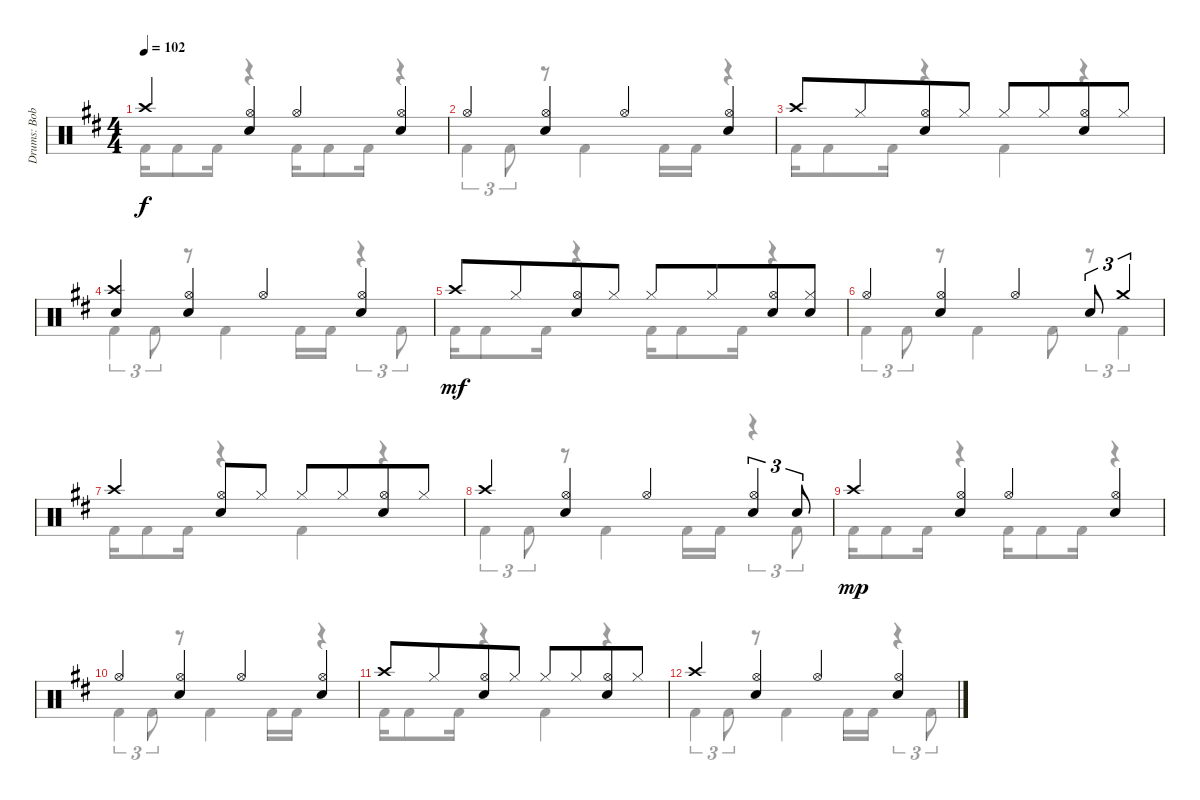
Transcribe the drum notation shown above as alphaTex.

\track ("Drums: Bobby" "Drums: Bob") {instrument percussion}
\staff {score}
\articulation defaults
\voice
\ts (4 4)
\tempo 102
\clef neutral
\ks d "Crash high (hit)".4{dy f beam merge}
("Hi-Hat (open)" "Snare (hit) 2").4 "Hi-Hat (open)".4{beam merge} ("Hi-Hat (open)" "Snare (hit) 2").4 |
"Hi-Hat (open)".4{beam merge} ("Hi-Hat (open)" "Snare (hit) 2").4 "Hi-Hat (open)".4{beam merge} ("Hi-Hat (open)" "Snare (hit) 2").4 |
"Crash high (hit)".8 "Hi-Hat (closed)".8{beam merge} ("Hi-Hat (open)" "Snare (hit) 2").8 "Hi-Hat (closed)".8 "Hi-Hat (closed)".8 "Hi-Hat (closed)".8{beam merge} ("Hi-Hat (open)" "Snare (hit) 2").8 "Hi-Hat (closed)".8 |
("Crash high (hit)" "Snare (hit)").4 ("Hi-Hat (open)" "Snare (hit) 2").4 "Hi-Hat (open)".4 ("Hi-Hat (open)" "Snare (hit) 2").4 |
"Crash high (hit)".8{dy mf} "Hi-Hat (closed)".8{beam merge} ("Hi-Hat (open)" "Snare (hit) 2").8 "Hi-Hat (closed)".8 "Hi-Hat (closed)".8 "Hi-Hat (closed)".8{beam merge} ("Hi-Hat (open)" "Snare (hit) 2").8 ("Hi-Hat (closed)" "Snare (hit)").8 |
"Hi-Hat (open)".4 ("Hi-Hat (open)" "Snare (hit) 2").4 "Hi-Hat (open)".4 "Snare (hit) 2".8{tu (3 2)} "Crash medium (hit)".4{tu (3 2)} |
"Crash high (hit)".4{beam merge} ("Hi-Hat (open)" "Snare (hit) 2").8 "Hi-Hat (closed)".8 "Hi-Hat (closed)".8 "Hi-Hat (closed)".8{beam merge} ("Hi-Hat (open)" "Snare (hit) 2").8 "Hi-Hat (closed)".8 |
"Crash high (hit)".4 ("Hi-Hat (open)" "Snare (hit) 2").4 "Hi-Hat (open)".4 ("Hi-Hat (open)" "Snare (hit) 2").4{tu (3 2)} "Snare (hit) 2".8{tu (3 2)} |
"Crash high (hit)".4{dy mp beam merge} ("Hi-Hat (open)" "Snare (hit) 2").4 "Hi-Hat (open)".4{beam merge} ("Hi-Hat (open)" "Snare (hit) 2").4 |
"Hi-Hat (open)".4{beam merge} ("Hi-Hat (open)" "Snare (hit) 2").4 "Hi-Hat (open)".4{beam merge} ("Hi-Hat (open)" "Snare (hit) 2").4 |
"Crash high (hit)".8 "Hi-Hat (closed)".8{beam merge} ("Hi-Hat (open)" "Snare (hit) 2").8 "Hi-Hat (closed)".8 "Hi-Hat (closed)".8 "Hi-Hat (closed)".8{beam merge} ("Hi-Hat (open)" "Snare (hit) 2").8 "Hi-Hat (closed)".8 |
"Crash high (hit)".4 ("Hi-Hat (open)" "Snare (hit) 2").4 "Hi-Hat (open)".4 ("Hi-Hat (open)" "Snare (hit) 2").4
\voice
\clef neutral
\ottava regular
\simile none
\ks d "Kick (hit) 2".16{dy f} "Kick (hit) 2".8 "Kick (hit) 2".16
r.4 "Kick (hit) 2".16 "Kick (hit) 2".8 "Kick (hit) 2".16 r.4 |
"Kick (hit) 2".4{tu (3 2)} "Kick (hit) 2".8{tu (3 2)} r.8 "Kick (hit) 2".4 "Kick (hit) 2".16 "Kick (hit) 2".16 r.4 |
"Kick (hit) 2".16 "Kick (hit) 2".8 "Kick (hit) 2".16 r.4 "Kick (hit) 2".4 r.4 |
"Kick (hit) 2".4{tu (3 2)} "Kick (hit) 2".8{tu (3 2)} r.8 "Kick (hit) 2".4 "Kick (hit) 2".16 "Kick (hit) 2".16 r.4{tu (3 2)} "Kick (hit) 2".8{tu (3 2)} |
"Kick (hit) 2".16{dy mf} "Kick (hit) 2".8 "Kick (hit) 2".16 r.4 "Kick (hit) 2".16 "Kick (hit) 2".8 "Kick (hit) 2".16 r.4 |
"Kick (hit) 2".4{tu (3 2)} "Kick (hit) 2".8{tu (3 2)} r.8 "Kick (hit) 2".4 "Kick (hit) 2".8 r.8{tu (3 2)} "Kick (hit) 2".4{tu (3 2)} |
"Kick (hit) 2".16 "Kick (hit) 2".8 "Kick (hit) 2".16 r.4 "Kick (hit) 2".4 r.4 |
"Kick (hit) 2".4{tu (3 2)} "Kick (hit) 2".8{tu (3 2)} r.8 "Kick (hit) 2".4 "Kick (hit) 2".16 "Kick (hit) 2".16 r.4{tu (3 2)} "Kick (hit) 2".8{tu (3 2)} |
"Kick (hit) 2".16{dy mp} "Kick (hit) 2".8 "Kick (hit) 2".16 r.4 "Kick (hit) 2".16 "Kick (hit) 2".8 "Kick (hit) 2".16 r.4 |
"Kick (hit) 2".4{tu (3 2)} "Kick (hit) 2".8{tu (3 2)} r.8 "Kick (hit) 2".4 "Kick (hit) 2".16 "Kick (hit) 2".16 r.4 |
"Kick (hit) 2".16 "Kick (hit) 2".8 "Kick (hit) 2".16 r.4 "Kick (hit) 2".4 r.4 |
"Kick (hit) 2".4{tu (3 2)} "Kick (hit) 2".8{tu (3 2)} r.8 "Kick (hit) 2".4 "Kick (hit) 2".16 "Kick (hit) 2".16 r.4{tu (3 2)} "Kick (hit) 2".8{tu (3 2)}
